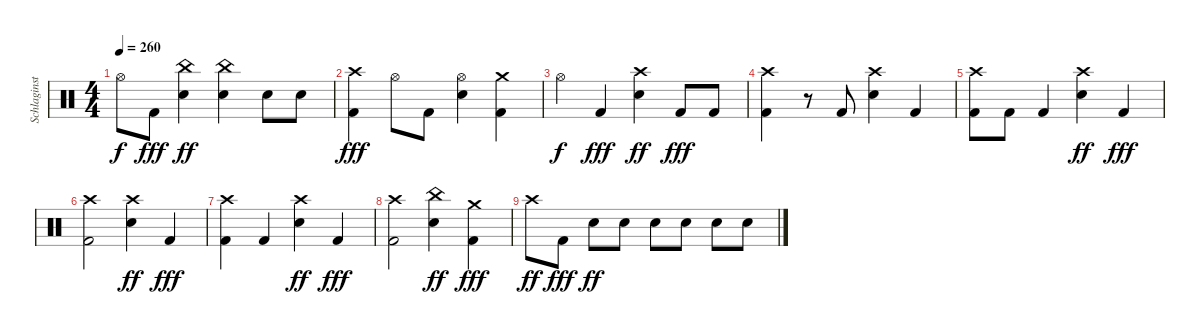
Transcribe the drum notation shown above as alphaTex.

\track ("Schlaginstrumente - Auswahl" "Schlaginst") {instrument percussion}
\staff {score}
\articulation defaults
\ts (4 4)
\tempo 260
\clef neutral
\ks c "Hi-Hat (open)".8{dy f} "Kick (hit) 2".8{dy fff}
("China (hit)" "Snare (hit) 2").4{dy ff} ("China (hit)" "Snare (hit) 2").4 "Snare (hit) 2".8 "Snare (hit) 2".8 |
("Crash high (hit)" "Kick (hit) 2").4{dy fff} "Hi-Hat (open)".8 "Kick (hit) 2".8 ("Hi-Hat (open)" "Snare (hit) 2").4 ("Crash medium (hit)" "Kick (hit) 2").4 |
"Hi-Hat (open)".4{dy f} "Kick (hit) 2".4{dy fff} ("Crash high (hit)" "Snare (hit) 2").4{dy ff} "Kick (hit) 2".8{dy fff} "Kick (hit) 2".8 |
("Crash high (hit)" "Kick (hit) 2").4 r.8 "Kick (hit) 2".8 ("Crash high (hit)" "Snare (hit) 2").4 "Kick (hit) 2".4 |
("Crash high (hit)" "Kick (hit) 2").8 "Kick (hit) 2".8 "Kick (hit) 2".4 ("Crash high (hit)" "Snare (hit) 2").4{dy ff} "Kick (hit) 2".4{dy fff} |
("Crash high (hit)" "Kick (hit) 2").2 ("Crash high (hit)" "Snare (hit) 2").4{dy ff} "Kick (hit) 2".4{dy fff} |
("Crash high (hit)" "Kick (hit) 2").4 "Kick (hit) 2".4 ("Crash high (hit)" "Snare (hit) 2").4{dy ff} "Kick (hit) 2".4{dy fff} |
("Crash high (hit)" "Kick (hit) 2").2 ("China (hit)" "Snare (hit) 2").4{dy ff} ("Crash medium (hit)" "Kick (hit) 2").4{dy fff} |
"Crash high (hit)".8{dy ff} "Kick (hit) 2".8{dy fff} "Snare (hit) 2".8{dy ff} "Snare (hit) 2".8 "Snare (hit) 2".8 "Snare (hit) 2".8 "Snare (hit) 2".8 "Snare (hit) 2".8
